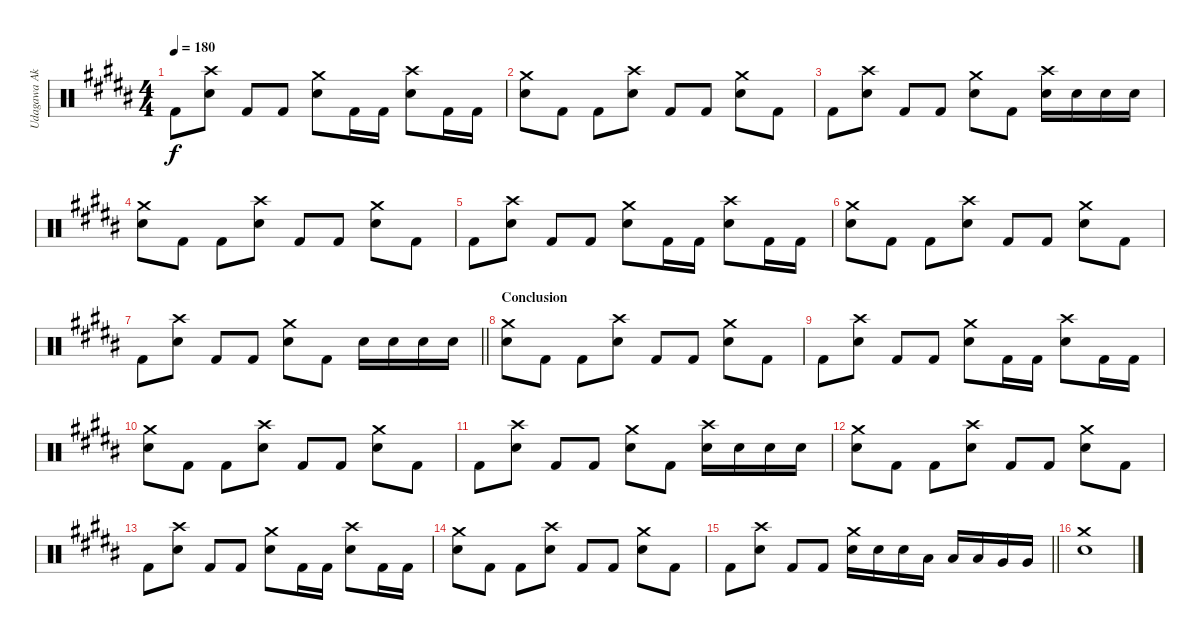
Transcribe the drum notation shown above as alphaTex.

\track ("Udagawa Ako" "Udagawa Ak") {instrument percussion}
\staff {score}
\articulation defaults
\ts (4 4)
\tempo 180
\clef neutral
\ks b "Kick (hit) 2".8{dy f}
("Crash high (hit)" "Electric Snare (hit)").8 "Kick (hit) 2".8 "Kick (hit) 2".8 ("Crash medium (hit)" "Electric Snare (hit)").8 "Kick (hit) 2".16 "Kick (hit) 2".16 ("Crash high (hit)" "Electric Snare (hit)").8 "Kick (hit) 2".16 "Kick (hit) 2".16 |
("Crash medium (hit)" "Electric Snare (hit)").8 "Kick (hit) 2".8 "Kick (hit) 2".8 ("Crash high (hit)" "Electric Snare (hit)").8 "Kick (hit) 2".8 "Kick (hit) 2".8 ("Crash medium (hit)" "Electric Snare (hit)").8 "Kick (hit) 2".8 |
"Kick (hit) 2".8 ("Crash high (hit)" "Electric Snare (hit)").8 "Kick (hit) 2".8 "Kick (hit) 2".8 ("Crash medium (hit)" "Electric Snare (hit)").8 "Kick (hit) 2".8 ("Crash high (hit)" "Electric Snare (hit)").16 "Electric Snare (hit)".16 "Electric Snare (hit)".16 "Electric Snare (hit)".16 |
("Crash medium (hit)" "Electric Snare (hit)").8 "Kick (hit) 2".8 "Kick (hit) 2".8 ("Crash high (hit)" "Electric Snare (hit)").8 "Kick (hit) 2".8 "Kick (hit) 2".8 ("Crash medium (hit)" "Electric Snare (hit)").8 "Kick (hit) 2".8 |
"Kick (hit) 2".8 ("Crash high (hit)" "Electric Snare (hit)").8 "Kick (hit) 2".8 "Kick (hit) 2".8 ("Crash medium (hit)" "Electric Snare (hit)").8 "Kick (hit) 2".16 "Kick (hit) 2".16 ("Crash high (hit)" "Electric Snare (hit)").8 "Kick (hit) 2".16 "Kick (hit) 2".16 |
("Crash medium (hit)" "Electric Snare (hit)").8 "Kick (hit) 2".8 "Kick (hit) 2".8 ("Crash high (hit)" "Electric Snare (hit)").8 "Kick (hit) 2".8 "Kick (hit) 2".8 ("Crash medium (hit)" "Electric Snare (hit)").8 "Kick (hit) 2".8 |
\barLineRight lightlight "Kick (hit) 2".8
("Crash high (hit)" "Electric Snare (hit)").8 "Kick (hit) 2".8 "Kick (hit) 2".8 ("Crash medium (hit)" "Electric Snare (hit)").8 "Kick (hit) 2".8 "Electric Snare (hit)".16 "Electric Snare (hit)".16 "Electric Snare (hit)".16 "Electric Snare (hit)".16 |
\section ("" "Conclusion")
("Crash medium (hit)" "Electric Snare (hit)").8 "Kick (hit) 2".8 "Kick (hit) 2".8 ("Crash high (hit)" "Electric Snare (hit)").8 "Kick (hit) 2".8 "Kick (hit) 2".8 ("Crash medium (hit)" "Electric Snare (hit)").8 "Kick (hit) 2".8 |
"Kick (hit) 2".8 ("Crash high (hit)" "Electric Snare (hit)").8 "Kick (hit) 2".8 "Kick (hit) 2".8 ("Crash medium (hit)" "Electric Snare (hit)").8 "Kick (hit) 2".16 "Kick (hit) 2".16 ("Crash high (hit)" "Electric Snare (hit)").8 "Kick (hit) 2".16 "Kick (hit) 2".16 |
("Crash medium (hit)" "Electric Snare (hit)").8 "Kick (hit) 2".8 "Kick (hit) 2".8 ("Crash high (hit)" "Electric Snare (hit)").8 "Kick (hit) 2".8 "Kick (hit) 2".8 ("Crash medium (hit)" "Electric Snare (hit)").8 "Kick (hit) 2".8 |
"Kick (hit) 2".8 ("Crash high (hit)" "Electric Snare (hit)").8 "Kick (hit) 2".8 "Kick (hit) 2".8 ("Crash medium (hit)" "Electric Snare (hit)").8 "Kick (hit) 2".8 ("Crash high (hit)" "Electric Snare (hit)").16 "Electric Snare (hit)".16 "Electric Snare (hit)".16 "Electric Snare (hit)".16 |
("Crash medium (hit)" "Electric Snare (hit)").8 "Kick (hit) 2".8 "Kick (hit) 2".8 ("Crash high (hit)" "Electric Snare (hit)").8 "Kick (hit) 2".8 "Kick (hit) 2".8 ("Crash medium (hit)" "Electric Snare (hit)").8 "Kick (hit) 2".8 |
"Kick (hit) 2".8 ("Crash high (hit)" "Electric Snare (hit)").8 "Kick (hit) 2".8 "Kick (hit) 2".8 ("Crash medium (hit)" "Electric Snare (hit)").8 "Kick (hit) 2".16 "Kick (hit) 2".16 ("Crash high (hit)" "Electric Snare (hit)").8 "Kick (hit) 2".16 "Kick (hit) 2".16 |
("Crash medium (hit)" "Electric Snare (hit)").8 "Kick (hit) 2".8 "Kick (hit) 2".8 ("Crash high (hit)" "Electric Snare (hit)").8 "Kick (hit) 2".8 "Kick (hit) 2".8 ("Crash medium (hit)" "Electric Snare (hit)").8 "Kick (hit) 2".8 |
\barLineRight lightlight "Kick (hit) 2".8
("Crash high (hit)" "Electric Snare (hit)").8 "Kick (hit) 2".8 "Kick (hit) 2".8 ("Crash medium (hit)" "Electric Snare (hit)").16 "Electric Snare (hit)".16 "Electric Snare (hit)".16 "Low Tom (hit)".16 "Low Tom (hit)".16 "Low Tom (hit)".16 "Very Low Tom (hit)".16 "Very Low Tom (hit)".16 |
("Crash medium (hit)" "Electric Snare (hit)").1
